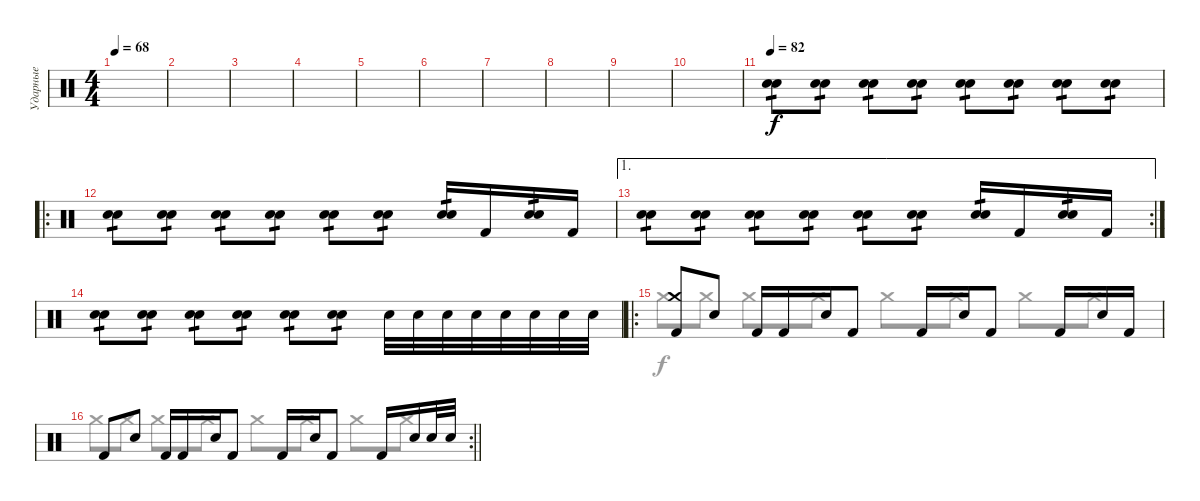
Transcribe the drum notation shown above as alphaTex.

\track ("Ударные" "Ударные") {instrument percussion}
\staff {score}
\articulation defaults
\voice
\ts (4 4)
\tempo 68
\clef neutral
\ks c
|
|
|
|
|
|
|
|
|
|
\tempo 82
("Electric Snare (hit)" "Electric Snare (hit)").8{tp 1} ("Electric Snare (hit)" "Electric Snare (hit)").8{tp 1} ("Electric Snare (hit)" "Electric Snare (hit)").8{tp 1} ("Electric Snare (hit)" "Electric Snare (hit)").8{tp 1} ("Electric Snare (hit)" "Electric Snare (hit)").8{tp 1} ("Electric Snare (hit)" "Electric Snare (hit)").8{tp 1} ("Electric Snare (hit)" "Electric Snare (hit)").8{tp 1} ("Electric Snare (hit)" "Electric Snare (hit)").8{tp 1} |
\ro
("Electric Snare (hit)" "Electric Snare (hit)").8{tp 1} ("Electric Snare (hit)" "Electric Snare (hit)").8{tp 1} ("Electric Snare (hit)" "Electric Snare (hit)").8{tp 1} ("Electric Snare (hit)" "Electric Snare (hit)").8{tp 1} ("Electric Snare (hit)" "Electric Snare (hit)").8{tp 1} ("Electric Snare (hit)" "Electric Snare (hit)").8{tp 1} ("Electric Snare (hit)" "Electric Snare (hit)").16{tp 1} "Kick (hit) 2".16 ("Electric Snare (hit)" "Electric Snare (hit)").16{tp 1} "Kick (hit) 2".16 |
\ae 1
\rc 2
("Electric Snare (hit)" "Electric Snare (hit)").8{tp 1} ("Electric Snare (hit)" "Electric Snare (hit)").8{tp 1} ("Electric Snare (hit)" "Electric Snare (hit)").8{tp 1} ("Electric Snare (hit)" "Electric Snare (hit)").8{tp 1} ("Electric Snare (hit)" "Electric Snare (hit)").8{tp 1} ("Electric Snare (hit)" "Electric Snare (hit)").8{tp 1} ("Electric Snare (hit)" "Electric Snare (hit)").16{tp 1} "Kick (hit) 2".16 ("Electric Snare (hit)" "Electric Snare (hit)").16{tp 1} "Kick (hit) 2".16 |
("Electric Snare (hit)" "Electric Snare (hit)").8{tp 1} ("Electric Snare (hit)" "Electric Snare (hit)").8{tp 1} ("Electric Snare (hit)" "Electric Snare (hit)").8{tp 1} ("Electric Snare (hit)" "Electric Snare (hit)").8{tp 1} ("Electric Snare (hit)" "Electric Snare (hit)").8{tp 1} ("Electric Snare (hit)" "Electric Snare (hit)").8{tp 1} "Electric Snare (hit)".32 "Electric Snare (hit)".32 "Electric Snare (hit)".32 "Electric Snare (hit)".32 "Snare (hit) 2".32 "Snare (hit) 2".32 "Snare (hit) 2".32 "Snare (hit) 2".32 |
\ro
("Crash medium (hit)" "Kick (hit) 2").8 "Snare (hit) 2".8 "Kick (hit) 2".16 "Kick (hit) 2".16 "Snare (hit) 2".16 "Kick (hit) 2".8 "Kick (hit) 2".16 "Snare (hit) 2".16 "Kick (hit) 2".8 "Kick (hit) 2".16 "Snare (hit) 2".16 "Kick (hit) 2".16 |
\rc 2
\barLineRight lightlight "Kick (hit) 2".8 "Snare (hit) 2".8 "Kick (hit) 2".16 "Kick (hit) 2".16 "Snare (hit) 2".16 "Kick (hit) 2".8 "Kick (hit) 2".16 "Snare (hit) 2".16 "Kick (hit) 2".8 "Kick (hit) 2".16 "Snare (hit) 2".16 "Snare (hit) 2".32 "Snare (hit) 2".32
\voice
\clef neutral
\ottava regular
\simile none
\ks c
|
|
|
|
|
|
|
|
|
|
|
|
|
|
"Crash medium (hit)".8 "Crash medium (hit)".8 "Crash medium (hit)".8 "Crash medium (hit)".8 "Crash medium (hit)".8 "Crash medium (hit)".8 "Crash medium (hit)".8 "Crash medium (hit)".8 |
\barLineRight lightlight "Crash medium (hit)".8 "Crash medium (hit)".8 "Crash medium (hit)".8 "Crash medium (hit)".8 "Crash medium (hit)".8 "Crash medium (hit)".8 "Crash medium (hit)".8 "Crash medium (hit)".8
